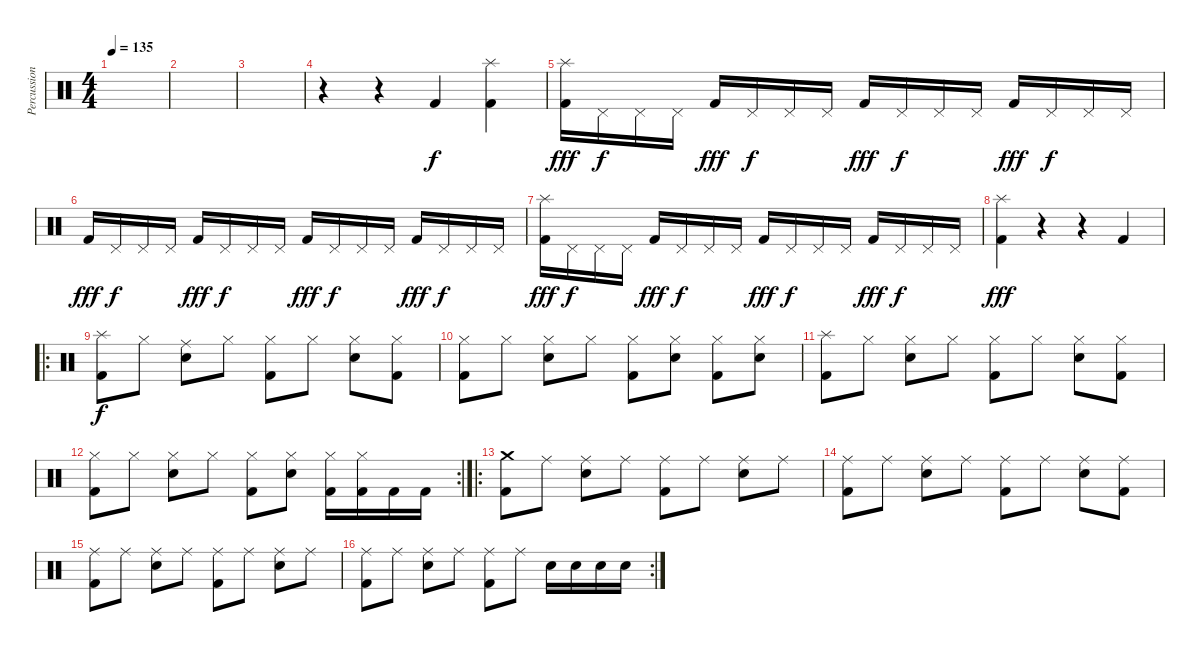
\track ("Percussions" "Percussion") {instrument percussion}
\staff {score}
\articulation defaults
\ts (4 4)
\tempo 135
\clef neutral
\ks c
|
|
|
r.4 r.4 "Kick (hit) 2".4 ("Splash (hit)" "Kick (hit) 2").4 |
("Splash (hit)" "Kick (hit) 2").16{dy fff} "Pedal Hi-Hat (hit)".16{dy f} "Pedal Hi-Hat (hit)".16 "Pedal Hi-Hat (hit)".16 "Kick (hit) 2".16{dy fff} "Pedal Hi-Hat (hit)".16{dy f} "Pedal Hi-Hat (hit)".16 "Pedal Hi-Hat (hit)".16 "Kick (hit) 2".16{dy fff} "Pedal Hi-Hat (hit)".16{dy f} "Pedal Hi-Hat (hit)".16 "Pedal Hi-Hat (hit)".16 "Kick (hit) 2".16{dy fff} "Pedal Hi-Hat (hit)".16{dy f} "Pedal Hi-Hat (hit)".16 "Pedal Hi-Hat (hit)".16 |
"Kick (hit) 2".16{dy fff} "Pedal Hi-Hat (hit)".16{dy f} "Pedal Hi-Hat (hit)".16 "Pedal Hi-Hat (hit)".16 "Kick (hit) 2".16{dy fff} "Pedal Hi-Hat (hit)".16{dy f} "Pedal Hi-Hat (hit)".16 "Pedal Hi-Hat (hit)".16 "Kick (hit) 2".16{dy fff} "Pedal Hi-Hat (hit)".16{dy f} "Pedal Hi-Hat (hit)".16 "Pedal Hi-Hat (hit)".16 "Kick (hit) 2".16{dy fff} "Pedal Hi-Hat (hit)".16{dy f} "Pedal Hi-Hat (hit)".16 "Pedal Hi-Hat (hit)".16 |
("Splash (hit)" "Kick (hit) 2").16{dy fff} "Pedal Hi-Hat (hit)".16{dy f} "Pedal Hi-Hat (hit)".16 "Pedal Hi-Hat (hit)".16 "Kick (hit) 2".16{dy fff} "Pedal Hi-Hat (hit)".16{dy f} "Pedal Hi-Hat (hit)".16 "Pedal Hi-Hat (hit)".16 "Kick (hit) 2".16{dy fff} "Pedal Hi-Hat (hit)".16{dy f} "Pedal Hi-Hat (hit)".16 "Pedal Hi-Hat (hit)".16 "Kick (hit) 2".16{dy fff} "Pedal Hi-Hat (hit)".16{dy f} "Pedal Hi-Hat (hit)".16 "Pedal Hi-Hat (hit)".16 |
("Splash (hit)" "Kick (hit) 2").4{dy fff} r.4 r.4 "Kick (hit) 2".4 |
\ro
("Splash (hit)" "Kick (hit) 2").8{dy f} "Hi-Hat (closed)".8 ("Ride (middle)" "Snare (hit) 2").8 "Hi-Hat (closed)".8 ("Hi-Hat (closed)" "Kick (hit) 2").8 "Hi-Hat (closed)".8 ("Hi-Hat (closed)" "Snare (hit) 2").8 ("Hi-Hat (closed)" "Kick (hit) 2").8 |
("Hi-Hat (closed)" "Kick (hit) 2").8 "Hi-Hat (closed)".8 ("Hi-Hat (closed)" "Snare (hit) 2").8 "Hi-Hat (closed)".8 ("Hi-Hat (closed)" "Kick (hit) 2").8 ("Hi-Hat (closed)" "Snare (hit) 2").8 ("Hi-Hat (closed)" "Kick (hit) 2").8 ("Hi-Hat (closed)" "Snare (hit) 2").8 |
("Splash (hit)" "Kick (hit) 2").8 "Hi-Hat (closed)".8 ("Hi-Hat (closed)" "Snare (hit) 2").8 "Hi-Hat (closed)".8 ("Hi-Hat (closed)" "Kick (hit) 2").8 "Hi-Hat (closed)".8 ("Hi-Hat (closed)" "Snare (hit) 2").8 ("Hi-Hat (closed)" "Kick (hit) 2").8 |
\rc 2
("Hi-Hat (closed)" "Kick (hit) 2").8 "Hi-Hat (closed)".8 ("Hi-Hat (closed)" "Snare (hit) 2").8 "Hi-Hat (closed)".8 ("Hi-Hat (closed)" "Kick (hit) 2").8 ("Hi-Hat (closed)" "Snare (hit) 2").8 ("Hi-Hat (closed)" "Kick (hit) 2").16 ("Hi-Hat (closed)" "Kick (hit) 2").16 "Kick (hit) 2".16 "Kick (hit) 2".16 |
\ro
("Crash medium (hit)" "Kick (hit) 2").8 "Ride (middle)".8 ("Ride (middle)" "Snare (hit) 2").8 "Ride (middle)".8 ("Ride (middle)" "Kick (hit) 2").8 "Ride (middle)".8 ("Ride (middle)" "Snare (hit) 2").8 "Ride (middle)".8 |
("Ride (middle)" "Kick (hit) 2").8 "Ride (middle)".8 ("Ride (middle)" "Snare (hit) 2").8 "Ride (middle)".8 ("Ride (middle)" "Kick (hit) 2").8 "Ride (middle)".8 ("Ride (middle)" "Snare (hit) 2").8 ("Ride (middle)" "Kick (hit) 2").8 |
("Ride (middle)" "Kick (hit) 2").8 "Ride (middle)".8 ("Ride (middle)" "Snare (hit) 2").8 "Ride (middle)".8 ("Ride (middle)" "Kick (hit) 2").8 "Ride (middle)".8 ("Ride (middle)" "Snare (hit) 2").8 "Ride (middle)".8 |
\rc 2
("Ride (middle)" "Kick (hit) 2").8 "Ride (middle)".8 ("Ride (middle)" "Snare (hit) 2").8 "Ride (middle)".8 ("Ride (middle)" "Kick (hit) 2").8 "Ride (middle)".8 "Snare (hit) 2".16 "Snare (hit) 2".16 "Snare (hit) 2".16 "Snare (hit) 2".16
